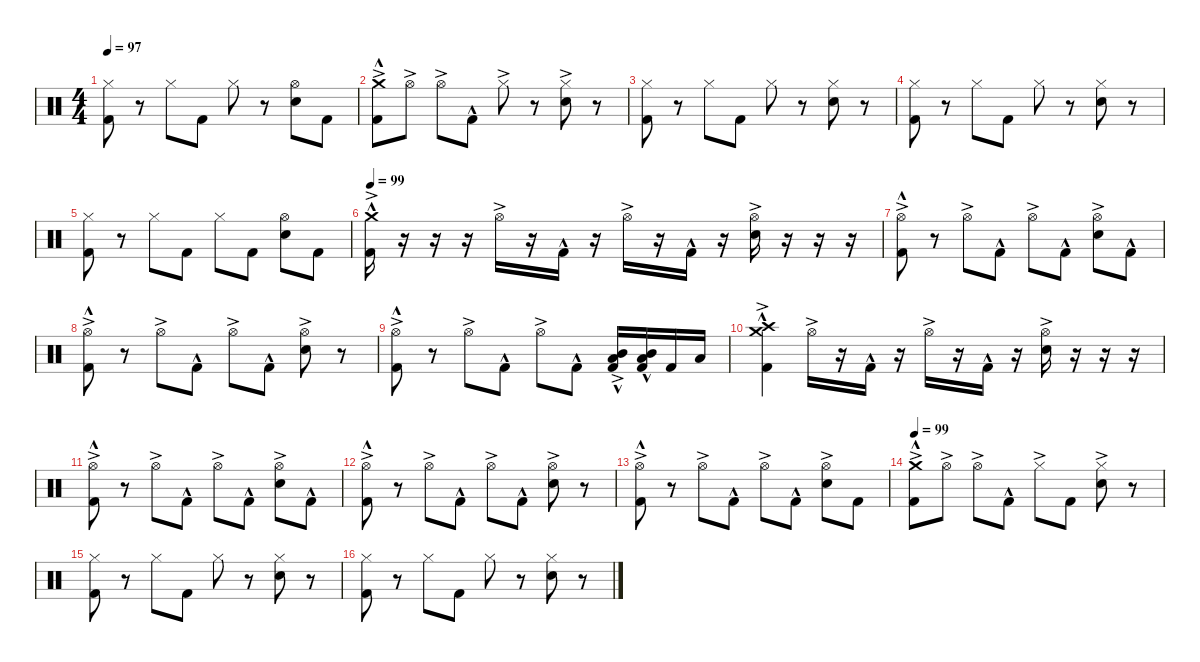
\defaultSystemsLayout 4
\hideDynamics
\bracketExtendMode nobrackets
\singleTrackTrackNamePolicy hidden
\multiTrackTrackNamePolicy hidden
\firstSystemTrackNameMode fullname
\firstSystemTrackNameOrientation horizontal
\otherSystemsTrackNameOrientation horizontal
\track ("Percussion" "drm.") {instrument percussion}
\staff {score}
\articulation defaults
\ts (4 4)
\tempo 97
\clef neutral
\ks c
("Hi-Hat (closed)" "Kick (hit) 2").8{dy f beam Down} r.8{beam Down} "Hi-Hat (closed)".8{beam Down} "Kick (hit) 2".8{beam Down} "Hi-Hat (closed)".8{beam Down} r.8{beam Down} ("Hi-Hat (open)" "Snare (hit) 2").8{beam Down} "Kick (hit) 2".8{beam Down} |
("Crash medium (hit)"{ac} "Kick (hit) 2"{hac}).8{beam Down} "Hi-Hat (open)"{ac}.8{beam Down} "Hi-Hat (open)"{ac}.8{beam Down} "Kick (hit) 2"{hac}.8{beam Down} "Hi-Hat (closed)"{ac}.8{beam Down} r.8{beam Down} ("Hi-Hat (closed)"{ac} "Snare (hit) 2"{ac}).8{beam Down} r.8{beam Down} |
("Hi-Hat (closed)" "Kick (hit) 2").8{beam Down} r.8{beam Down} "Hi-Hat (closed)".8{beam Down} "Kick (hit) 2".8{beam Down} "Hi-Hat (closed)".8{beam Down} r.8{beam Down} ("Hi-Hat (closed)" "Snare (hit) 2").8{beam Down} r.8{beam Down} |
("Hi-Hat (closed)" "Kick (hit) 2").8{beam Down} r.8{beam Down} "Hi-Hat (closed)".8{beam Down} "Kick (hit) 2".8{beam Down} "Hi-Hat (closed)".8{beam Down} r.8{beam Down} ("Hi-Hat (closed)" "Snare (hit) 2").8{beam Down} r.8{beam Down} |
("Hi-Hat (closed)" "Kick (hit) 2").8{beam Down} r.8{beam Down} "Hi-Hat (closed)".8{beam Down} "Kick (hit) 2".8{beam Down} "Hi-Hat (closed)".8{beam Down} "Kick (hit) 2".8{beam Down} ("Hi-Hat (open)" "Snare (hit) 2").8{beam Down} "Kick (hit) 2".8{beam Down} |
\tempo 99
("Crash medium (hit)"{hac} "Kick (hit) 2"{ac}).16{beam Down} r.16{beam Down} r.16{beam Down} r.16{beam Down} "Hi-Hat (open)"{ac}.16{beam Down} r.16{beam Down} "Kick (hit) 2"{hac}.16{beam Down} r.16{beam Down} "Hi-Hat (open)"{ac}.16{beam Down} r.16{beam Down} "Kick (hit) 2"{hac}.16{beam Down} r.16{beam Down} ("Hi-Hat (open)"{ac} "Snare (hit) 2"{ac}).16{beam Down} r.16{beam Down} r.16{beam Down} r.16{beam Down} |
("Hi-Hat (open)"{ac} "Kick (hit) 2"{hac}).8{beam Down} r.8{beam Down} "Hi-Hat (open)"{ac}.8{beam Down} "Kick (hit) 2"{hac}.8{beam Down} "Hi-Hat (open)"{ac}.8{beam Down} "Kick (hit) 2"{hac}.8{beam Down} ("Hi-Hat (open)"{ac} "Snare (hit) 2"{ac}).8{beam Down} "Kick (hit) 2"{hac}.8{beam Down} |
("Hi-Hat (open)"{ac} "Kick (hit) 2"{hac}).8{beam Down} r.8{beam Down} "Hi-Hat (open)"{ac}.8{beam Down} "Kick (hit) 2"{hac}.8{beam Down} "Hi-Hat (open)"{ac}.8{beam Down} "Kick (hit) 2"{hac}.8{beam Down} ("Hi-Hat (open)"{ac} "Snare (hit) 2"{ac}).8{beam Down} r.8{beam Down} |
("Hi-Hat (open)"{ac} "Kick (hit) 2"{hac}).8{beam Down} r.8{beam Down} "Hi-Hat (open)"{ac}.8{beam Down} "Kick (hit) 2"{hac}.8{beam Down} "Hi-Hat (open)"{ac}.8{beam Down} "Kick (hit) 2"{hac}.8{beam Down} ("Low Tom (hit)"{ac} "Mid Tom (hit)"{hac} "Kick (hit) 2").16{beam Up} ("Low Tom (hit)"{hac} "Mid Tom (hit)"{hac} "Kick (hit) 2").16{beam Up} "Kick (hit) 2".16{beam Up} "Low Tom (hit)".16{beam Up} |
("Crash medium (hit)"{hac} "Crash high (hit)"{hac} "Kick (hit) 2"{ac}).4{beam Down} "Hi-Hat (open)"{ac}.16{beam Down} r.16{beam Down} "Kick (hit) 2"{hac}.16{beam Down} r.16{beam Down} "Hi-Hat (open)"{ac}.16{beam Down} r.16{beam Down} "Kick (hit) 2"{hac}.16{beam Down} r.16{beam Down} ("Hi-Hat (open)"{ac} "Snare (hit) 2"{ac}).16{beam Down} r.16{beam Down} r.16{beam Down} r.16{beam Down} |
("Hi-Hat (open)"{ac} "Kick (hit) 2"{hac}).8{beam Down} r.8{beam Down} "Hi-Hat (open)"{ac}.8{beam Down} "Kick (hit) 2"{hac}.8{beam Down} "Hi-Hat (open)"{ac}.8{beam Down} "Kick (hit) 2"{hac}.8{beam Down} ("Hi-Hat (open)"{ac} "Snare (hit) 2"{ac}).8{beam Down} "Kick (hit) 2"{hac}.8{beam Down} |
("Hi-Hat (open)"{ac} "Kick (hit) 2"{hac}).8{beam Down} r.8{beam Down} "Hi-Hat (open)"{ac}.8{beam Down} "Kick (hit) 2"{hac}.8{beam Down} "Hi-Hat (open)"{ac}.8{beam Down} "Kick (hit) 2"{hac}.8{beam Down} ("Hi-Hat (open)"{ac} "Snare (hit) 2"{ac}).8{beam Down} r.8{beam Down} |
("Hi-Hat (open)"{ac} "Kick (hit) 2"{hac}).8{beam Down} r.8{beam Down} "Hi-Hat (open)"{ac}.8{beam Down} "Kick (hit) 2"{hac}.8{beam Down} "Hi-Hat (open)"{ac}.8{beam Down} "Kick (hit) 2"{hac}.8{beam Down} ("Hi-Hat (open)"{ac} "Snare (hit) 2"{ac}).8{beam Down} "Kick (hit) 2".8{beam Down} |
\tempo 99
("Crash medium (hit)"{ac} "Kick (hit) 2"{hac}).8{beam Down} "Hi-Hat (open)"{ac}.8{beam Down} "Hi-Hat (open)"{ac}.8{beam Down} "Kick (hit) 2"{hac}.8{beam Down} "Hi-Hat (closed)"{ac}.8{beam Down} "Kick (hit) 2".8{beam Down} ("Hi-Hat (closed)"{ac} "Snare (hit) 2"{ac}).8{beam Down} r.8{beam Down} |
("Hi-Hat (closed)" "Kick (hit) 2").8{beam Down} r.8{beam Down} "Hi-Hat (closed)".8{beam Down} "Kick (hit) 2".8{beam Down} "Hi-Hat (closed)".8{beam Down} r.8{beam Down} ("Hi-Hat (closed)" "Snare (hit) 2").8{beam Down} r.8{beam Down} |
("Hi-Hat (closed)" "Kick (hit) 2").8{beam Down} r.8{beam Down} "Hi-Hat (closed)".8{beam Down} "Kick (hit) 2".8{beam Down} "Hi-Hat (closed)".8{beam Down} r.8{beam Down} ("Hi-Hat (closed)" "Snare (hit) 2").8{beam Down} r.8{beam Down}
